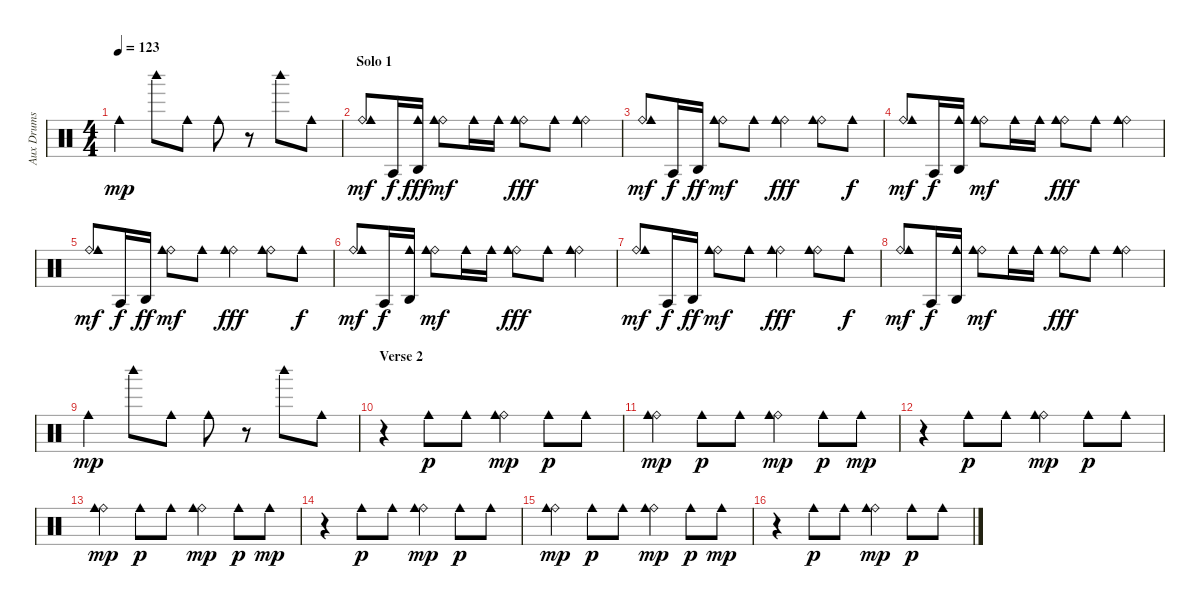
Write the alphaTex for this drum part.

\track ("Aux Drums" "Aux Drums") {instrument percussion}
\staff {score}
\articulation defaults
\ts (4 4)
\tempo 123
\clef neutral
\ks c "Cowbell medium (hit)".4{dy mp} "Woodblock high (hit)".8 "Cowbell medium (hit)".8 "Cowbell medium (hit)".8
r.8 "Woodblock high (hit)".8 "Cowbell medium (hit)".8 |
\section ("" "Solo 1")
("Ride (bell)" "Cowbell medium (hit)").8{dy mf} "Agogo tow (hit)".16{dy f} ("Agogo high (hit)" "Cowbell medium (hit)").16{dy fff} ("Ride (bell)" "Cowbell medium (hit)").8{dy mf} "Cowbell medium (hit)".16 "Cowbell medium (hit)".16 ("Ride (bell)" "Cowbell medium (hit)").8{dy fff} "Cowbell medium (hit)".8 ("Ride (bell)" "Cowbell medium (hit)").4 |
("Ride (bell)" "Cowbell medium (hit)").8{dy mf} "Agogo tow (hit)".16{dy f} "Agogo high (hit)".16{dy ff} ("Ride (bell)" "Cowbell medium (hit)").8{dy mf} "Cowbell medium (hit)".8 ("Ride (bell)" "Cowbell medium (hit)").4{dy fff} ("Ride (bell)" "Cowbell medium (hit)").8 "Cowbell medium (hit)".8{dy f} |
("Ride (bell)" "Cowbell medium (hit)").8{dy mf} "Agogo tow (hit)".16{dy f} ("Agogo high (hit)" "Cowbell medium (hit)").16 ("Ride (bell)" "Cowbell medium (hit)").8{dy mf} "Cowbell medium (hit)".16 "Cowbell medium (hit)".16 ("Ride (bell)" "Cowbell medium (hit)").8{dy fff} "Cowbell medium (hit)".8 ("Ride (bell)" "Cowbell medium (hit)").4 |
("Ride (bell)" "Cowbell medium (hit)").8{dy mf} "Agogo tow (hit)".16{dy f} "Agogo high (hit)".16{dy ff} ("Ride (bell)" "Cowbell medium (hit)").8{dy mf} "Cowbell medium (hit)".8 ("Ride (bell)" "Cowbell medium (hit)").4{dy fff} ("Ride (bell)" "Cowbell medium (hit)").8 "Cowbell medium (hit)".8{dy f} |
("Ride (bell)" "Cowbell medium (hit)").8{dy mf} "Agogo tow (hit)".16{dy f} ("Agogo high (hit)" "Cowbell medium (hit)").16 ("Ride (bell)" "Cowbell medium (hit)").8{dy mf} "Cowbell medium (hit)".16 "Cowbell medium (hit)".16 ("Ride (bell)" "Cowbell medium (hit)").8{dy fff} "Cowbell medium (hit)".8 ("Ride (bell)" "Cowbell medium (hit)").4 |
("Ride (bell)" "Cowbell medium (hit)").8{dy mf} "Agogo tow (hit)".16{dy f} "Agogo high (hit)".16{dy ff} ("Ride (bell)" "Cowbell medium (hit)").8{dy mf} "Cowbell medium (hit)".8 ("Ride (bell)" "Cowbell medium (hit)").4{dy fff} ("Ride (bell)" "Cowbell medium (hit)").8 "Cowbell medium (hit)".8{dy f} |
("Ride (bell)" "Cowbell medium (hit)").8{dy mf} "Agogo tow (hit)".16{dy f} ("Agogo high (hit)" "Cowbell medium (hit)").16 ("Ride (bell)" "Cowbell medium (hit)").8{dy mf} "Cowbell medium (hit)".16 "Cowbell medium (hit)".16 ("Ride (bell)" "Cowbell medium (hit)").8{dy fff} "Cowbell medium (hit)".8 ("Ride (bell)" "Cowbell medium (hit)").4 |
"Cowbell medium (hit)".4{dy mp} "Woodblock high (hit)".8 "Cowbell medium (hit)".8 "Cowbell medium (hit)".8 r.8 "Woodblock high (hit)".8 "Cowbell medium (hit)".8 |
\section ("" "Verse 2")
r.4 "Cowbell medium (hit)".8{dy p} "Cowbell medium (hit)".8 ("Ride (bell)" "Cowbell medium (hit)").4{dy mp} "Cowbell medium (hit)".8{dy p} "Cowbell medium (hit)".8 |
("Ride (bell)" "Cowbell medium (hit)").4{dy mp} "Cowbell medium (hit)".8{dy p} "Cowbell medium (hit)".8 ("Ride (bell)" "Cowbell medium (hit)").4{dy mp} "Cowbell medium (hit)".8{dy p} "Cowbell medium (hit)".8{dy mp} |
r.4 "Cowbell medium (hit)".8{dy p} "Cowbell medium (hit)".8 ("Ride (bell)" "Cowbell medium (hit)").4{dy mp} "Cowbell medium (hit)".8{dy p} "Cowbell medium (hit)".8 |
("Ride (bell)" "Cowbell medium (hit)").4{dy mp} "Cowbell medium (hit)".8{dy p} "Cowbell medium (hit)".8 ("Ride (bell)" "Cowbell medium (hit)").4{dy mp} "Cowbell medium (hit)".8{dy p} "Cowbell medium (hit)".8{dy mp} |
r.4 "Cowbell medium (hit)".8{dy p} "Cowbell medium (hit)".8 ("Ride (bell)" "Cowbell medium (hit)").4{dy mp} "Cowbell medium (hit)".8{dy p} "Cowbell medium (hit)".8 |
("Ride (bell)" "Cowbell medium (hit)").4{dy mp} "Cowbell medium (hit)".8{dy p} "Cowbell medium (hit)".8 ("Ride (bell)" "Cowbell medium (hit)").4{dy mp} "Cowbell medium (hit)".8{dy p} "Cowbell medium (hit)".8{dy mp} |
r.4 "Cowbell medium (hit)".8{dy p} "Cowbell medium (hit)".8 ("Ride (bell)" "Cowbell medium (hit)").4{dy mp} "Cowbell medium (hit)".8{dy p} "Cowbell medium (hit)".8
